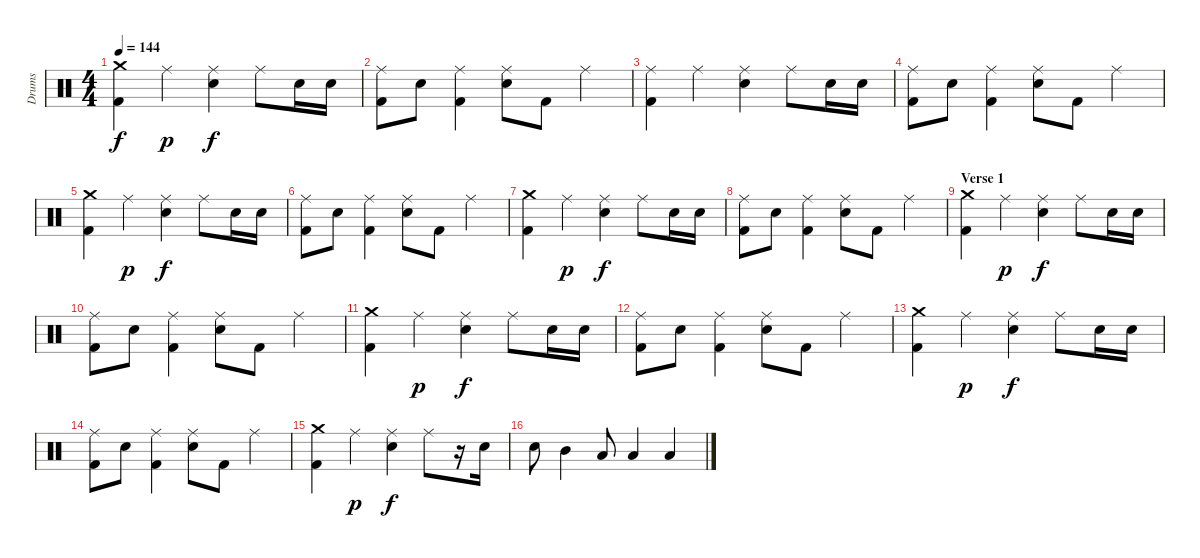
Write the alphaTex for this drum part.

\track ("Drums" "Drums") {instrument percussion}
\staff {score}
\articulation defaults
\ts (4 4)
\tempo 144
\clef neutral
\ks c
("Crash medium (hit)" "Kick (hit) 2").4{dy f} "Ride (middle)".4{dy p} ("Ride (middle)" "Snare (hit) 2").4{dy f} "Ride (middle)".8 "Snare (hit) 2".16 "Snare (hit) 2".16 |
("Ride (middle)" "Kick (hit) 2").8 "Snare (hit) 2".8 ("Ride (middle)" "Kick (hit) 2").4 ("Ride (middle)" "Snare (hit) 2").8 "Kick (hit) 2".8 "Ride (middle)".4 |
("Ride (middle)" "Kick (hit) 2").4 "Ride (middle)".4 ("Ride (middle)" "Snare (hit) 2").4 "Ride (middle)".8 "Snare (hit) 2".16 "Snare (hit) 2".16 |
("Ride (middle)" "Kick (hit) 2").8 "Snare (hit) 2".8 ("Ride (middle)" "Kick (hit) 2").4 ("Ride (middle)" "Snare (hit) 2").8 "Kick (hit) 2".8 "Ride (middle)".4 |
("Crash medium (hit)" "Kick (hit) 2").4 "Ride (middle)".4{dy p} ("Ride (middle)" "Snare (hit) 2").4{dy f} "Ride (middle)".8 "Snare (hit) 2".16 "Snare (hit) 2".16 |
("Ride (middle)" "Kick (hit) 2").8 "Snare (hit) 2".8 ("Ride (middle)" "Kick (hit) 2").4 ("Ride (middle)" "Snare (hit) 2").8 "Kick (hit) 2".8 "Ride (middle)".4 |
("Crash medium (hit)" "Kick (hit) 2").4 "Ride (middle)".4{dy p} ("Ride (middle)" "Snare (hit) 2").4{dy f} "Ride (middle)".8 "Snare (hit) 2".16 "Snare (hit) 2".16 |
("Ride (middle)" "Kick (hit) 2").8 "Snare (hit) 2".8 ("Ride (middle)" "Kick (hit) 2").4 ("Ride (middle)" "Snare (hit) 2").8 "Kick (hit) 2".8 "Ride (middle)".4 |
\section ("" "Verse 1")
("Crash medium (hit)" "Kick (hit) 2").4 "Ride (middle)".4{dy p} ("Ride (middle)" "Snare (hit) 2").4{dy f} "Ride (middle)".8 "Snare (hit) 2".16 "Snare (hit) 2".16 |
("Ride (middle)" "Kick (hit) 2").8 "Snare (hit) 2".8 ("Ride (middle)" "Kick (hit) 2").4 ("Ride (middle)" "Snare (hit) 2").8 "Kick (hit) 2".8 "Ride (middle)".4 |
("Crash medium (hit)" "Kick (hit) 2").4 "Ride (middle)".4{dy p} ("Ride (middle)" "Snare (hit) 2").4{dy f} "Ride (middle)".8 "Snare (hit) 2".16 "Snare (hit) 2".16 |
("Ride (middle)" "Kick (hit) 2").8 "Snare (hit) 2".8 ("Ride (middle)" "Kick (hit) 2").4 ("Ride (middle)" "Snare (hit) 2").8 "Kick (hit) 2".8 "Ride (middle)".4 |
("Crash medium (hit)" "Kick (hit) 2").4 "Ride (middle)".4{dy p} ("Ride (middle)" "Snare (hit) 2").4{dy f} "Ride (middle)".8 "Snare (hit) 2".16 "Snare (hit) 2".16 |
("Ride (middle)" "Kick (hit) 2").8 "Snare (hit) 2".8 ("Ride (middle)" "Kick (hit) 2").4 ("Ride (middle)" "Snare (hit) 2").8 "Kick (hit) 2".8 "Ride (middle)".4 |
("Crash medium (hit)" "Kick (hit) 2").4 "Ride (middle)".4{dy p} ("Ride (middle)" "Snare (hit) 2").4{dy f} "Ride (middle)".8 r.16 "Snare (hit) 2".16 |
"Snare (hit) 2".8 "Mid Tom (hit)".4 "Low Tom (hit)".8 "Low Tom (hit)".4 "Low Floor Tom (hit)".4
